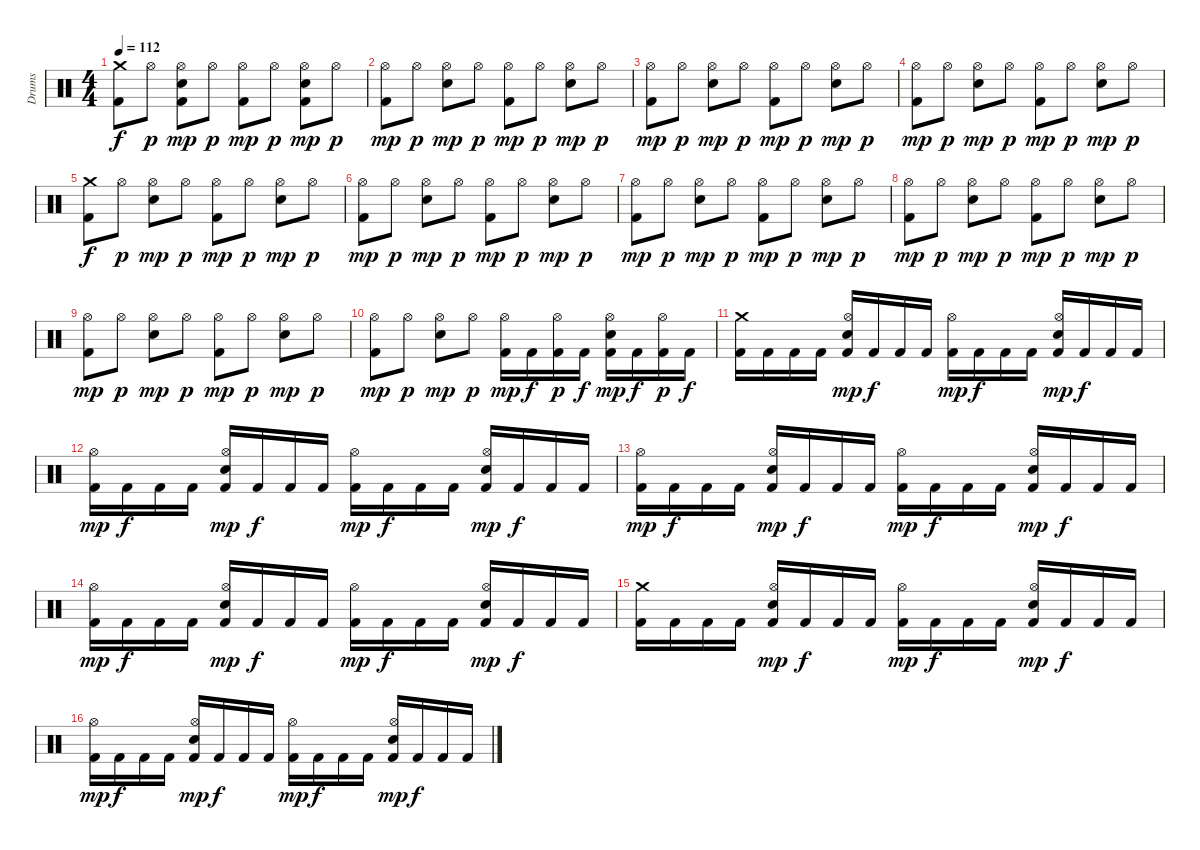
\track ("Drums" "Drums") {instrument percussion}
\staff {score}
\articulation defaults
\ts (4 4)
\tempo 112
\clef neutral
\ks c
("Crash medium (hit)" "Kick (hit) 2").8{dy f} "Hi-Hat (open)".8{dy p} ("Hi-Hat (open)" "Electric Snare (hit)" "Kick (hit) 2").8{dy mp} "Hi-Hat (open)".8{dy p} ("Hi-Hat (open)" "Kick (hit) 2").8{dy mp} "Hi-Hat (open)".8{dy p} ("Hi-Hat (open)" "Electric Snare (hit)" "Kick (hit) 2").8{dy mp} "Hi-Hat (open)".8{dy p} |
("Hi-Hat (open)" "Kick (hit) 2").8{dy mp} "Hi-Hat (open)".8{dy p} ("Hi-Hat (open)" "Electric Snare (hit)").8{dy mp} "Hi-Hat (open)".8{dy p} ("Hi-Hat (open)" "Kick (hit) 2").8{dy mp} "Hi-Hat (open)".8{dy p} ("Hi-Hat (open)" "Electric Snare (hit)").8{dy mp} "Hi-Hat (open)".8{dy p} |
("Hi-Hat (open)" "Kick (hit) 2").8{dy mp} "Hi-Hat (open)".8{dy p} ("Hi-Hat (open)" "Electric Snare (hit)").8{dy mp} "Hi-Hat (open)".8{dy p} ("Hi-Hat (open)" "Kick (hit) 2").8{dy mp} "Hi-Hat (open)".8{dy p} ("Hi-Hat (open)" "Electric Snare (hit)").8{dy mp} "Hi-Hat (open)".8{dy p} |
("Hi-Hat (open)" "Kick (hit) 2").8{dy mp} "Hi-Hat (open)".8{dy p} ("Hi-Hat (open)" "Electric Snare (hit)").8{dy mp} "Hi-Hat (open)".8{dy p} ("Hi-Hat (open)" "Kick (hit) 2").8{dy mp} "Hi-Hat (open)".8{dy p} ("Hi-Hat (open)" "Electric Snare (hit)").8{dy mp} "Hi-Hat (open)".8{dy p} |
("Crash medium (hit)" "Kick (hit) 2").8{dy f} "Hi-Hat (open)".8{dy p} ("Hi-Hat (open)" "Electric Snare (hit)").8{dy mp} "Hi-Hat (open)".8{dy p} ("Hi-Hat (open)" "Kick (hit) 2").8{dy mp} "Hi-Hat (open)".8{dy p} ("Hi-Hat (open)" "Electric Snare (hit)").8{dy mp} "Hi-Hat (open)".8{dy p} |
("Hi-Hat (open)" "Kick (hit) 2").8{dy mp} "Hi-Hat (open)".8{dy p} ("Hi-Hat (open)" "Electric Snare (hit)").8{dy mp} "Hi-Hat (open)".8{dy p} ("Hi-Hat (open)" "Kick (hit) 2").8{dy mp} "Hi-Hat (open)".8{dy p} ("Hi-Hat (open)" "Electric Snare (hit)").8{dy mp} "Hi-Hat (open)".8{dy p} |
("Hi-Hat (open)" "Kick (hit) 2").8{dy mp} "Hi-Hat (open)".8{dy p} ("Hi-Hat (open)" "Electric Snare (hit)").8{dy mp} "Hi-Hat (open)".8{dy p} ("Hi-Hat (open)" "Kick (hit) 2").8{dy mp} "Hi-Hat (open)".8{dy p} ("Hi-Hat (open)" "Electric Snare (hit)").8{dy mp} "Hi-Hat (open)".8{dy p} |
("Hi-Hat (open)" "Kick (hit) 2").8{dy mp} "Hi-Hat (open)".8{dy p} ("Hi-Hat (open)" "Electric Snare (hit)").8{dy mp} "Hi-Hat (open)".8{dy p} ("Hi-Hat (open)" "Kick (hit) 2").8{dy mp} "Hi-Hat (open)".8{dy p} ("Hi-Hat (open)" "Electric Snare (hit)").8{dy mp} "Hi-Hat (open)".8{dy p} |
("Hi-Hat (open)" "Kick (hit) 2").8{dy mp} "Hi-Hat (open)".8{dy p} ("Hi-Hat (open)" "Electric Snare (hit)").8{dy mp} "Hi-Hat (open)".8{dy p} ("Hi-Hat (open)" "Kick (hit) 2").8{dy mp} "Hi-Hat (open)".8{dy p} ("Hi-Hat (open)" "Electric Snare (hit)").8{dy mp} "Hi-Hat (open)".8{dy p} |
("Hi-Hat (open)" "Kick (hit) 2").8{dy mp} "Hi-Hat (open)".8{dy p} ("Hi-Hat (open)" "Electric Snare (hit)").8{dy mp} "Hi-Hat (open)".8{dy p} ("Hi-Hat (open)" "Kick (hit) 2").16{dy mp} "Kick (hit) 2".16{dy f} ("Hi-Hat (open)" "Kick (hit) 2").16{dy p} "Kick (hit) 2".16{dy f} ("Hi-Hat (open)" "Electric Snare (hit)" "Kick (hit) 2").16{dy mp} "Kick (hit) 2".16{dy f} ("Hi-Hat (open)" "Kick (hit) 2").16{dy p} "Kick (hit) 2".16{dy f} |
("Crash medium (hit)" "Kick (hit) 2").16 "Kick (hit) 2".16 "Kick (hit) 2".16 "Kick (hit) 2".16 ("Hi-Hat (open)" "Electric Snare (hit)" "Kick (hit) 2").16{dy mp} "Kick (hit) 2".16{dy f} "Kick (hit) 2".16 "Kick (hit) 2".16 ("Hi-Hat (open)" "Kick (hit) 2").16{dy mp} "Kick (hit) 2".16{dy f} "Kick (hit) 2".16 "Kick (hit) 2".16 ("Hi-Hat (open)" "Electric Snare (hit)" "Kick (hit) 2").16{dy mp} "Kick (hit) 2".16{dy f} "Kick (hit) 2".16 "Kick (hit) 2".16 |
("Hi-Hat (open)" "Kick (hit) 2").16{dy mp} "Kick (hit) 2".16{dy f} "Kick (hit) 2".16 "Kick (hit) 2".16 ("Hi-Hat (open)" "Electric Snare (hit)" "Kick (hit) 2").16{dy mp} "Kick (hit) 2".16{dy f} "Kick (hit) 2".16 "Kick (hit) 2".16 ("Hi-Hat (open)" "Kick (hit) 2").16{dy mp} "Kick (hit) 2".16{dy f} "Kick (hit) 2".16 "Kick (hit) 2".16 ("Hi-Hat (open)" "Electric Snare (hit)" "Kick (hit) 2").16{dy mp} "Kick (hit) 2".16{dy f} "Kick (hit) 2".16 "Kick (hit) 2".16 |
("Hi-Hat (open)" "Kick (hit) 2").16{dy mp} "Kick (hit) 2".16{dy f} "Kick (hit) 2".16 "Kick (hit) 2".16 ("Hi-Hat (open)" "Electric Snare (hit)" "Kick (hit) 2").16{dy mp} "Kick (hit) 2".16{dy f} "Kick (hit) 2".16 "Kick (hit) 2".16 ("Hi-Hat (open)" "Kick (hit) 2").16{dy mp} "Kick (hit) 2".16{dy f} "Kick (hit) 2".16 "Kick (hit) 2".16 ("Hi-Hat (open)" "Electric Snare (hit)" "Kick (hit) 2").16{dy mp} "Kick (hit) 2".16{dy f} "Kick (hit) 2".16 "Kick (hit) 2".16 |
("Hi-Hat (open)" "Kick (hit) 2").16{dy mp} "Kick (hit) 2".16{dy f} "Kick (hit) 2".16 "Kick (hit) 2".16 ("Hi-Hat (open)" "Electric Snare (hit)" "Kick (hit) 2").16{dy mp} "Kick (hit) 2".16{dy f} "Kick (hit) 2".16 "Kick (hit) 2".16 ("Hi-Hat (open)" "Kick (hit) 2").16{dy mp} "Kick (hit) 2".16{dy f} "Kick (hit) 2".16 "Kick (hit) 2".16 ("Hi-Hat (open)" "Electric Snare (hit)" "Kick (hit) 2").16{dy mp} "Kick (hit) 2".16{dy f} "Kick (hit) 2".16 "Kick (hit) 2".16 |
("Crash medium (hit)" "Kick (hit) 2").16 "Kick (hit) 2".16 "Kick (hit) 2".16 "Kick (hit) 2".16 ("Hi-Hat (open)" "Electric Snare (hit)" "Kick (hit) 2").16{dy mp} "Kick (hit) 2".16{dy f} "Kick (hit) 2".16 "Kick (hit) 2".16 ("Hi-Hat (open)" "Kick (hit) 2").16{dy mp} "Kick (hit) 2".16{dy f} "Kick (hit) 2".16 "Kick (hit) 2".16 ("Hi-Hat (open)" "Electric Snare (hit)" "Kick (hit) 2").16{dy mp} "Kick (hit) 2".16{dy f} "Kick (hit) 2".16 "Kick (hit) 2".16 |
("Hi-Hat (open)" "Kick (hit) 2").16{dy mp} "Kick (hit) 2".16{dy f} "Kick (hit) 2".16 "Kick (hit) 2".16 ("Hi-Hat (open)" "Electric Snare (hit)" "Kick (hit) 2").16{dy mp} "Kick (hit) 2".16{dy f} "Kick (hit) 2".16 "Kick (hit) 2".16 ("Hi-Hat (open)" "Kick (hit) 2").16{dy mp} "Kick (hit) 2".16{dy f} "Kick (hit) 2".16 "Kick (hit) 2".16 ("Hi-Hat (open)" "Electric Snare (hit)" "Kick (hit) 2").16{dy mp} "Kick (hit) 2".16{dy f} "Kick (hit) 2".16 "Kick (hit) 2".16
